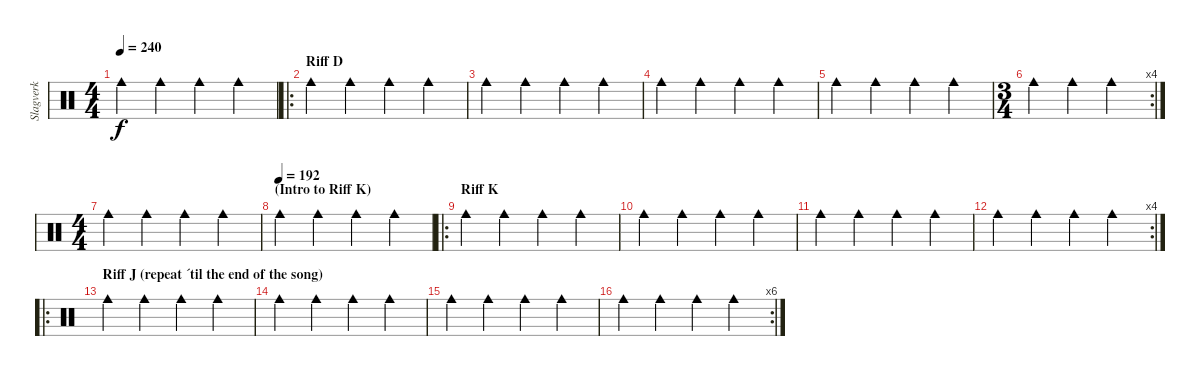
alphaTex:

\track ("Slagverk" "Slagverk") {instrument percussion}
\staff {score}
\articulation defaults
\ts (4 4)
\tempo 240
\clef neutral
\ks c "Cowbell medium (hit)".4{dy f} "Cowbell medium (hit)".4 "Cowbell medium (hit)".4 "Cowbell medium (hit)".4
|
\ro
\section ("" "Riff D")
"Cowbell medium (hit)".4 "Cowbell medium (hit)".4 "Cowbell medium (hit)".4 "Cowbell medium (hit)".4 |
"Cowbell medium (hit)".4 "Cowbell medium (hit)".4 "Cowbell medium (hit)".4 "Cowbell medium (hit)".4 |
"Cowbell medium (hit)".4 "Cowbell medium (hit)".4 "Cowbell medium (hit)".4 "Cowbell medium (hit)".4 |
"Cowbell medium (hit)".4 "Cowbell medium (hit)".4 "Cowbell medium (hit)".4 "Cowbell medium (hit)".4 |
\rc 4
\ts (3 4)
"Cowbell medium (hit)".4 "Cowbell medium (hit)".4 "Cowbell medium (hit)".4 |
\ts (4 4)
"Cowbell medium (hit)".4 "Cowbell medium (hit)".4 "Cowbell medium (hit)".4 "Cowbell medium (hit)".4 |
\section ("" "(Intro to Riff K)")
\tempo (192)
"Cowbell medium (hit)".4 "Cowbell medium (hit)".4 "Cowbell medium (hit)".4 "Cowbell medium (hit)".4 |
\ro
\section ("" "Riff K")
"Cowbell medium (hit)".4 "Cowbell medium (hit)".4 "Cowbell medium (hit)".4 "Cowbell medium (hit)".4 |
"Cowbell medium (hit)".4 "Cowbell medium (hit)".4 "Cowbell medium (hit)".4 "Cowbell medium (hit)".4 |
"Cowbell medium (hit)".4 "Cowbell medium (hit)".4 "Cowbell medium (hit)".4 "Cowbell medium (hit)".4 |
\rc 4 "Cowbell medium (hit)".4 "Cowbell medium (hit)".4 "Cowbell medium (hit)".4 "Cowbell medium (hit)".4
|
\ro
\section ("" "Riff J (repeat ´til the end of the song)")
"Cowbell medium (hit)".4 "Cowbell medium (hit)".4 "Cowbell medium (hit)".4 "Cowbell medium (hit)".4 |
"Cowbell medium (hit)".4 "Cowbell medium (hit)".4 "Cowbell medium (hit)".4 "Cowbell medium (hit)".4 |
"Cowbell medium (hit)".4 "Cowbell medium (hit)".4 "Cowbell medium (hit)".4 "Cowbell medium (hit)".4 |
\rc 6 "Cowbell medium (hit)".4 "Cowbell medium (hit)".4 "Cowbell medium (hit)".4 "Cowbell medium (hit)".4
